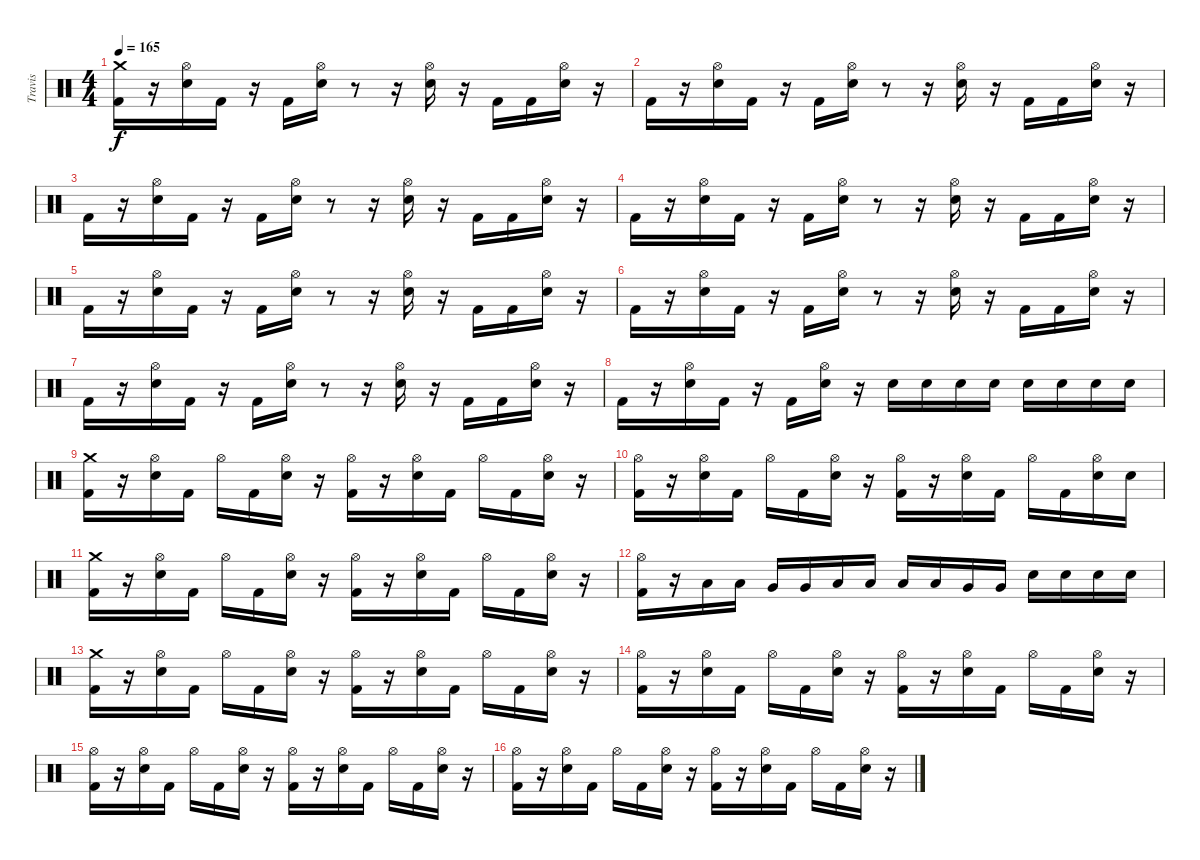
\track ("Travis" "Travis") {instrument percussion}
\staff {score}
\articulation defaults
\ts (4 4)
\tempo 165
\clef neutral
\ks c
("Kick (hit) 2" "Crash medium (hit)").16{dy f} r.16 ("Electric Snare (hit)" "Hi-Hat (open)").16 "Kick (hit) 2".16 r.16 "Kick (hit) 2".16 ("Electric Snare (hit)" "Hi-Hat (open)").16 r.8 r.16 ("Electric Snare (hit)" "Hi-Hat (open)").16 r.16 "Kick (hit) 2".16 "Kick (hit) 2".16 ("Electric Snare (hit)" "Hi-Hat (open)").16 r.16 |
"Kick (hit) 2".16 r.16 ("Electric Snare (hit)" "Hi-Hat (open)").16 "Kick (hit) 2".16 r.16 "Kick (hit) 2".16 ("Electric Snare (hit)" "Hi-Hat (open)").16 r.8 r.16 ("Electric Snare (hit)" "Hi-Hat (open)").16 r.16 "Kick (hit) 2".16 "Kick (hit) 2".16 ("Electric Snare (hit)" "Hi-Hat (open)").16 r.16 |
"Kick (hit) 2".16 r.16 ("Electric Snare (hit)" "Hi-Hat (open)").16 "Kick (hit) 2".16 r.16 "Kick (hit) 2".16 ("Electric Snare (hit)" "Hi-Hat (open)").16 r.8 r.16 ("Electric Snare (hit)" "Hi-Hat (open)").16 r.16 "Kick (hit) 2".16 "Kick (hit) 2".16 ("Electric Snare (hit)" "Hi-Hat (open)").16 r.16 |
"Kick (hit) 2".16 r.16 ("Electric Snare (hit)" "Hi-Hat (open)").16 "Kick (hit) 2".16 r.16 "Kick (hit) 2".16 ("Electric Snare (hit)" "Hi-Hat (open)").16 r.8 r.16 ("Electric Snare (hit)" "Hi-Hat (open)").16 r.16 "Kick (hit) 2".16 "Kick (hit) 2".16 ("Electric Snare (hit)" "Hi-Hat (open)").16 r.16 |
"Kick (hit) 2".16 r.16 ("Electric Snare (hit)" "Hi-Hat (open)").16 "Kick (hit) 2".16 r.16 "Kick (hit) 2".16 ("Electric Snare (hit)" "Hi-Hat (open)").16 r.8 r.16 ("Electric Snare (hit)" "Hi-Hat (open)").16 r.16 "Kick (hit) 2".16 "Kick (hit) 2".16 ("Electric Snare (hit)" "Hi-Hat (open)").16 r.16 |
"Kick (hit) 2".16 r.16 ("Electric Snare (hit)" "Hi-Hat (open)").16 "Kick (hit) 2".16 r.16 "Kick (hit) 2".16 ("Electric Snare (hit)" "Hi-Hat (open)").16 r.8 r.16 ("Electric Snare (hit)" "Hi-Hat (open)").16 r.16 "Kick (hit) 2".16 "Kick (hit) 2".16 ("Electric Snare (hit)" "Hi-Hat (open)").16 r.16 |
"Kick (hit) 2".16 r.16 ("Electric Snare (hit)" "Hi-Hat (open)").16 "Kick (hit) 2".16 r.16 "Kick (hit) 2".16 ("Electric Snare (hit)" "Hi-Hat (open)").16 r.8 r.16 ("Electric Snare (hit)" "Hi-Hat (open)").16 r.16 "Kick (hit) 2".16 "Kick (hit) 2".16 ("Electric Snare (hit)" "Hi-Hat (open)").16 r.16 |
"Kick (hit) 2".16 r.16 ("Electric Snare (hit)" "Hi-Hat (open)").16 "Kick (hit) 2".16 r.16 "Kick (hit) 2".16 ("Electric Snare (hit)" "Hi-Hat (open)").16 r.16 "Electric Snare (hit)".16 "Electric Snare (hit)".16 "Electric Snare (hit)".16 "Electric Snare (hit)".16 "Electric Snare (hit)".16 "Electric Snare (hit)".16 "Electric Snare (hit)".16 "Electric Snare (hit)".16 |
("Kick (hit) 2" "Crash medium (hit)").16 r.16 ("Electric Snare (hit)" "Hi-Hat (open)").16 "Kick (hit) 2".16 "Hi-Hat (open)".16 "Kick (hit) 2".16 ("Electric Snare (hit)" "Hi-Hat (open)").16 r.16 ("Kick (hit) 2" "Hi-Hat (open)").16 r.16 ("Electric Snare (hit)" "Hi-Hat (open)").16 "Kick (hit) 2".16 "Hi-Hat (open)".16 "Kick (hit) 2".16 ("Electric Snare (hit)" "Hi-Hat (open)").16 r.16 |
("Kick (hit) 2" "Hi-Hat (open)").16 r.16 ("Electric Snare (hit)" "Hi-Hat (open)").16 "Kick (hit) 2".16 "Hi-Hat (open)".16 "Kick (hit) 2".16 ("Electric Snare (hit)" "Hi-Hat (open)").16 r.16 ("Kick (hit) 2" "Hi-Hat (open)").16 r.16 ("Electric Snare (hit)" "Hi-Hat (open)").16 "Kick (hit) 2".16 "Hi-Hat (open)".16 "Kick (hit) 2".16 ("Electric Snare (hit)" "Hi-Hat (open)").16 "Electric Snare (hit)".16 |
("Kick (hit) 2" "Crash medium (hit)").16 r.16 ("Electric Snare (hit)" "Hi-Hat (open)").16 "Kick (hit) 2".16 "Hi-Hat (open)".16 "Kick (hit) 2".16 ("Electric Snare (hit)" "Hi-Hat (open)").16 r.16 ("Kick (hit) 2" "Hi-Hat (open)").16 r.16 ("Electric Snare (hit)" "Hi-Hat (open)").16 "Kick (hit) 2".16 "Hi-Hat (open)".16 "Kick (hit) 2".16 ("Electric Snare (hit)" "Hi-Hat (open)").16 r.16 |
("Kick (hit) 2" "Hi-Hat (open)").16 r.16 "Low Tom (hit)".16 "Low Tom (hit)".16 "Very Low Tom (hit)".16 "Very Low Tom (hit)".16 "Low Floor Tom (hit)".16 "Low Floor Tom (hit)".16 "Low Tom (hit)".16 "Low Tom (hit)".16 "Very Low Tom (hit)".16 "Very Low Tom (hit)".16 "Electric Snare (hit)".16 "Electric Snare (hit)".16 "Electric Snare (hit)".16 "Electric Snare (hit)".16 |
("Kick (hit) 2" "Crash medium (hit)").16 r.16 ("Electric Snare (hit)" "Hi-Hat (open)").16 "Kick (hit) 2".16 "Hi-Hat (open)".16 "Kick (hit) 2".16 ("Electric Snare (hit)" "Hi-Hat (open)").16 r.16 ("Kick (hit) 2" "Hi-Hat (open)").16 r.16 ("Electric Snare (hit)" "Hi-Hat (open)").16 "Kick (hit) 2".16 "Hi-Hat (open)".16 "Kick (hit) 2".16 ("Electric Snare (hit)" "Hi-Hat (open)").16 r.16 |
("Kick (hit) 2" "Hi-Hat (open)").16 r.16 ("Electric Snare (hit)" "Hi-Hat (open)").16 "Kick (hit) 2".16 "Hi-Hat (open)".16 "Kick (hit) 2".16 ("Electric Snare (hit)" "Hi-Hat (open)").16 r.16 ("Kick (hit) 2" "Hi-Hat (open)").16 r.16 ("Electric Snare (hit)" "Hi-Hat (open)").16 "Kick (hit) 2".16 "Hi-Hat (open)".16 "Kick (hit) 2".16 ("Electric Snare (hit)" "Hi-Hat (open)").16 r.16 |
("Kick (hit) 2" "Hi-Hat (open)").16 r.16 ("Electric Snare (hit)" "Hi-Hat (open)").16 "Kick (hit) 2".16 "Hi-Hat (open)".16 "Kick (hit) 2".16 ("Electric Snare (hit)" "Hi-Hat (open)").16 r.16 ("Kick (hit) 2" "Hi-Hat (open)").16 r.16 ("Electric Snare (hit)" "Hi-Hat (open)").16 "Kick (hit) 2".16 "Hi-Hat (open)".16 "Kick (hit) 2".16 ("Electric Snare (hit)" "Hi-Hat (open)").16 r.16 |
("Kick (hit) 2" "Hi-Hat (open)").16 r.16 ("Electric Snare (hit)" "Hi-Hat (open)").16 "Kick (hit) 2".16 "Hi-Hat (open)".16 "Kick (hit) 2".16 ("Electric Snare (hit)" "Hi-Hat (open)").16 r.16 ("Hi-Hat (open)" "Kick (hit) 2").16 r.16 ("Electric Snare (hit)" "Hi-Hat (open)").16 "Kick (hit) 2".16 "Hi-Hat (open)".16 "Kick (hit) 2".16 ("Electric Snare (hit)" "Hi-Hat (open)").16 r.16
